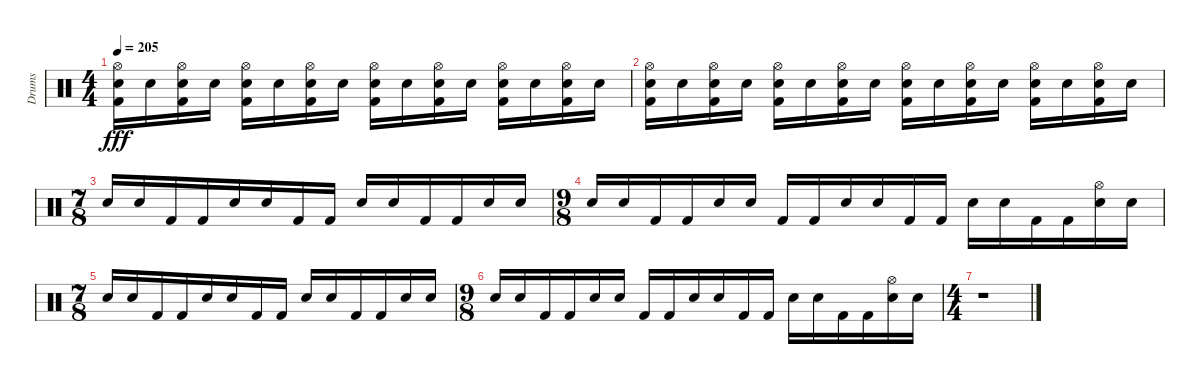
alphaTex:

\track ("Drums" "Drums") {instrument percussion}
\staff {score}
\articulation defaults
\ts (4 4)
\tempo 205
\clef neutral
\ks c
("Hi-Hat (open)" "Snare (hit) 2" "Kick (hit) 2").16{dy fff} "Snare (hit) 2".16 ("Hi-Hat (open)" "Snare (hit) 2" "Kick (hit) 2").16 "Snare (hit) 2".16 ("Hi-Hat (open)" "Snare (hit) 2" "Kick (hit) 2").16 "Snare (hit) 2".16 ("Hi-Hat (open)" "Snare (hit) 2" "Kick (hit) 2").16 "Snare (hit) 2".16 ("Hi-Hat (open)" "Snare (hit) 2" "Kick (hit) 2").16 "Snare (hit) 2".16 ("Hi-Hat (open)" "Snare (hit) 2" "Kick (hit) 2").16 "Snare (hit) 2".16 ("Hi-Hat (open)" "Snare (hit) 2" "Kick (hit) 2").16 "Snare (hit) 2".16 ("Hi-Hat (open)" "Snare (hit) 2" "Kick (hit) 2").16 "Snare (hit) 2".16 |
("Hi-Hat (open)" "Snare (hit) 2" "Kick (hit) 2").16 "Snare (hit) 2".16 ("Hi-Hat (open)" "Snare (hit) 2" "Kick (hit) 2").16 "Snare (hit) 2".16 ("Hi-Hat (open)" "Snare (hit) 2" "Kick (hit) 2").16 "Snare (hit) 2".16 ("Hi-Hat (open)" "Snare (hit) 2" "Kick (hit) 2").16 "Snare (hit) 2".16 ("Hi-Hat (open)" "Snare (hit) 2" "Kick (hit) 2").16 "Snare (hit) 2".16 ("Hi-Hat (open)" "Snare (hit) 2" "Kick (hit) 2").16 "Snare (hit) 2".16 ("Hi-Hat (open)" "Snare (hit) 2" "Kick (hit) 2").16 "Snare (hit) 2".16 ("Hi-Hat (open)" "Snare (hit) 2" "Kick (hit) 2").16 "Snare (hit) 2".16 |
\ts (7 8)
"Snare (hit) 2".16 "Snare (hit) 2".16 "Kick (hit) 2".16 "Kick (hit) 2".16 "Snare (hit) 2".16 "Snare (hit) 2".16 "Kick (hit) 2".16 "Kick (hit) 2".16 "Snare (hit) 2".16 "Snare (hit) 2".16 "Kick (hit) 2".16 "Kick (hit) 2".16 "Snare (hit) 2".16 "Snare (hit) 2".16 |
\ts (9 8)
"Snare (hit) 2".16 "Snare (hit) 2".16 "Kick (hit) 2".16 "Kick (hit) 2".16 "Snare (hit) 2".16 "Snare (hit) 2".16 "Kick (hit) 2".16 "Kick (hit) 2".16 "Snare (hit) 2".16 "Snare (hit) 2".16 "Kick (hit) 2".16 "Kick (hit) 2".16 "Snare (hit) 2".16 "Snare (hit) 2".16 "Kick (hit) 2".16 "Kick (hit) 2".16 ("Hi-Hat (open)" "Snare (hit) 2").16 "Snare (hit) 2".16 |
\ts (7 8)
"Snare (hit) 2".16 "Snare (hit) 2".16 "Kick (hit) 2".16 "Kick (hit) 2".16 "Snare (hit) 2".16 "Snare (hit) 2".16 "Kick (hit) 2".16 "Kick (hit) 2".16 "Snare (hit) 2".16 "Snare (hit) 2".16 "Kick (hit) 2".16 "Kick (hit) 2".16 "Snare (hit) 2".16 "Snare (hit) 2".16 |
\ts (9 8)
"Snare (hit) 2".16 "Snare (hit) 2".16 "Kick (hit) 2".16 "Kick (hit) 2".16 "Snare (hit) 2".16 "Snare (hit) 2".16 "Kick (hit) 2".16 "Kick (hit) 2".16 "Snare (hit) 2".16 "Snare (hit) 2".16 "Kick (hit) 2".16 "Kick (hit) 2".16 "Snare (hit) 2".16 "Snare (hit) 2".16 "Kick (hit) 2".16 "Kick (hit) 2".16 ("Hi-Hat (open)" "Snare (hit) 2").16 "Snare (hit) 2".16 |
\ts (4 4)
r.1
